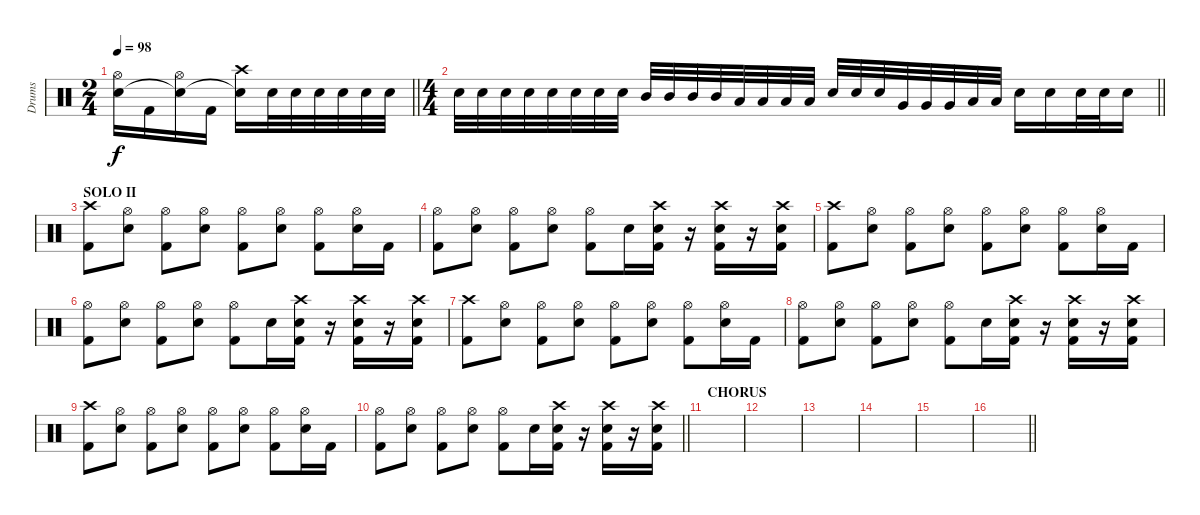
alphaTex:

\track ("Drums" "Drums") {instrument percussion}
\staff
\articulation defaults
\ts (2 4)
\tempo 98
\clef neutral
\barLineRight lightlight
\ks c
("Hi-Hat (open)" "Snare (hit) 2").16{dy f} "Kick (hit) 2".16 ("Hi-Hat (open)" "Snare (hit)"{t}).16 "Kick (hit) 2".16 ("Crash high (hit)" "Snare (hit)"{t}).16 "Snare (hit) 2".32 "Snare (hit) 2".32 "Snare (hit) 2".32 "Snare (hit) 2".32 "Snare (hit) 2".32 "Snare (hit) 2".32 |
\ts (4 4)
\barLineRight lightlight "Snare (hit) 2".32 "Snare (hit) 2".32 "Snare (hit) 2".32 "Snare (hit) 2".32 "Snare (hit) 2".32 "Snare (hit) 2".32 "Snare (hit) 2".32 "Snare (hit) 2".32 "Mid Tom (hit)".32 "Mid Tom (hit)".32 "Mid Tom (hit)".32 "Mid Tom (hit)".32 "Low Tom (hit)".32 "Low Tom (hit)".32 "Low Tom (hit)".32 "Low Tom (hit)".32 "Snare (hit) 2".32 "Snare (hit) 2".32 "Snare (hit) 2".32 "Very Low Tom (hit)".32 "Very Low Tom (hit)".32 "Very Low Tom (hit)".32 "Low Floor Tom (hit)".32 "Low Floor Tom (hit)".32 "Snare (hit) 2".16 "Snare (hit) 2".16 "Snare (hit) 2".32 "Snare (hit) 2".32 "Snare (hit) 2".16
|
\section ("" "SOLO II")
("Crash high (hit)" "Kick (hit) 2").8 ("Hi-Hat (open)" "Snare (hit) 2").8 ("Hi-Hat (open)" "Kick (hit) 2").8 ("Hi-Hat (open)" "Snare (hit) 2").8 ("Hi-Hat (open)" "Kick (hit) 2").8 ("Hi-Hat (open)" "Snare (hit) 2").8 ("Hi-Hat (open)" "Kick (hit) 2").8 ("Hi-Hat (open)" "Snare (hit) 2").16 "Kick (hit) 2".16 |
("Hi-Hat (open)" "Kick (hit) 2").8 ("Hi-Hat (open)" "Snare (hit) 2").8 ("Hi-Hat (open)" "Kick (hit) 2").8 ("Hi-Hat (open)" "Snare (hit) 2").8 ("Hi-Hat (open)" "Kick (hit) 2").8 "Snare (hit) 2".16 ("Crash high (hit)" "Snare (hit) 2" "Kick (hit) 2").16 r.16 ("Crash high (hit)" "Snare (hit) 2" "Kick (hit) 2").16 r.16 ("Crash high (hit)" "Snare (hit) 2" "Kick (hit) 2").16 |
("Crash high (hit)" "Kick (hit) 2").8 ("Hi-Hat (open)" "Snare (hit) 2").8 ("Hi-Hat (open)" "Kick (hit) 2").8 ("Hi-Hat (open)" "Snare (hit) 2").8 ("Hi-Hat (open)" "Kick (hit) 2").8 ("Hi-Hat (open)" "Snare (hit) 2").8 ("Hi-Hat (open)" "Kick (hit) 2").8 ("Hi-Hat (open)" "Snare (hit) 2").16 "Kick (hit) 2".16 |
("Hi-Hat (open)" "Kick (hit) 2").8 ("Hi-Hat (open)" "Snare (hit) 2").8 ("Hi-Hat (open)" "Kick (hit) 2").8 ("Hi-Hat (open)" "Snare (hit) 2").8 ("Hi-Hat (open)" "Kick (hit) 2").8 "Snare (hit) 2".16 ("Crash high (hit)" "Snare (hit) 2" "Kick (hit) 2").16 r.16 ("Crash high (hit)" "Snare (hit) 2" "Kick (hit) 2").16 r.16 ("Crash high (hit)" "Snare (hit) 2" "Kick (hit) 2").16 |
("Crash high (hit)" "Kick (hit) 2").8 ("Hi-Hat (open)" "Snare (hit) 2").8 ("Hi-Hat (open)" "Kick (hit) 2").8 ("Hi-Hat (open)" "Snare (hit) 2").8 ("Hi-Hat (open)" "Kick (hit) 2").8 ("Hi-Hat (open)" "Snare (hit) 2").8 ("Hi-Hat (open)" "Kick (hit) 2").8 ("Hi-Hat (open)" "Snare (hit) 2").16 "Kick (hit) 2".16 |
("Hi-Hat (open)" "Kick (hit) 2").8 ("Hi-Hat (open)" "Snare (hit) 2").8 ("Hi-Hat (open)" "Kick (hit) 2").8 ("Hi-Hat (open)" "Snare (hit) 2").8 ("Hi-Hat (open)" "Kick (hit) 2").8 "Snare (hit) 2".16 ("Crash high (hit)" "Snare (hit) 2" "Kick (hit) 2").16 r.16 ("Crash high (hit)" "Snare (hit) 2" "Kick (hit) 2").16 r.16 ("Crash high (hit)" "Snare (hit) 2" "Kick (hit) 2").16 |
("Crash high (hit)" "Kick (hit) 2").8 ("Hi-Hat (open)" "Snare (hit) 2").8 ("Hi-Hat (open)" "Kick (hit) 2").8 ("Hi-Hat (open)" "Snare (hit) 2").8 ("Hi-Hat (open)" "Kick (hit) 2").8 ("Hi-Hat (open)" "Snare (hit) 2").8 ("Hi-Hat (open)" "Kick (hit) 2").8 ("Hi-Hat (open)" "Snare (hit) 2").16 "Kick (hit) 2".16 |
\barLineRight lightlight
("Hi-Hat (open)" "Kick (hit) 2").8 ("Hi-Hat (open)" "Snare (hit) 2").8 ("Hi-Hat (open)" "Kick (hit) 2").8 ("Hi-Hat (open)" "Snare (hit) 2").8 ("Hi-Hat (open)" "Kick (hit) 2").8 "Snare (hit) 2".16 ("Crash high (hit)" "Snare (hit) 2" "Kick (hit) 2").16 r.16 ("Crash high (hit)" "Snare (hit) 2" "Kick (hit) 2").16 r.16 ("Crash high (hit)" "Snare (hit) 2" "Kick (hit) 2").16 |
\section ("" "CHORUS")
|
|
|
|
|
\barLineRight lightlight
